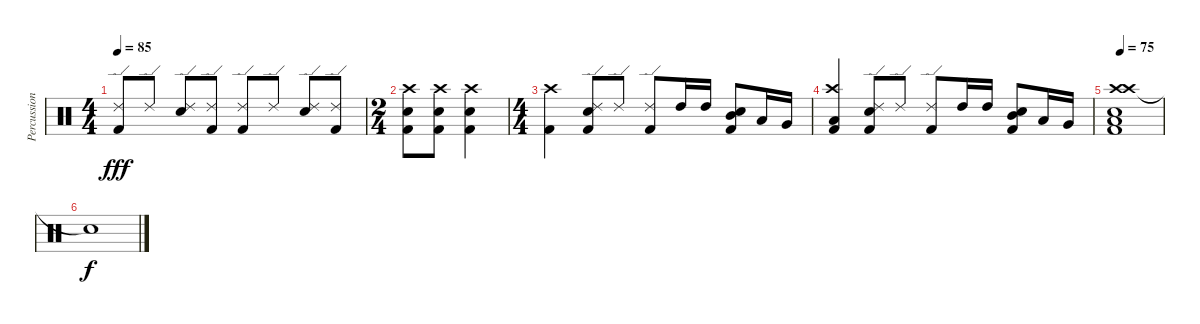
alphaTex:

\track ("Percussion" "Percussion") {instrument percussion}
\staff {score}
\articulation defaults
\ts (4 4)
\tempo 85
\clef neutral
\ks c
("Kick (hit) 2" "Ride (edge) 2").8{dy fff} "Ride (edge) 2".8 ("Ride (edge) 2" "Snare (hit) 2").8 ("Kick (hit) 2" "Ride (edge) 2").8 ("Kick (hit) 2" "Ride (edge) 2").8 "Ride (edge) 2".8 ("Ride (edge) 2" "Snare (hit) 2").8 ("Kick (hit) 2" "Ride (edge) 2").8 |
\ts (2 4)
("Crash high (hit)" "Snare (hit) 2" "Kick (hit) 2").8 ("Crash high (hit)" "Snare (hit) 2" "Kick (hit) 2").8 ("Crash high (hit)" "Snare (hit) 2" "Kick (hit) 2").4 |
\ts (4 4)
("Crash high (hit)" "Kick (hit) 2").4 ("Ride (edge) 2" "Snare (hit) 2" "Kick (hit) 2").8 "Ride (edge) 2".8 ("Ride (edge) 2" "Kick (hit) 2").8 "High Tom (hit)".16 "High Tom (hit)".16 ("Snare (hit) 2" "Mid Tom (hit)" "Kick (hit) 2").8 "Low Tom (hit)".16 "Very Low Tom (hit)".16 |
("Crash high (hit)" "Low Floor Tom (hit)" "Kick (hit) 2").4 ("Ride (edge) 2" "Snare (hit) 2" "Kick (hit) 2").8 "Ride (edge) 2".8 ("Ride (edge) 2" "Kick (hit) 2").8 "High Tom (hit)".16 "High Tom (hit)".16 ("Snare (hit) 2" "Mid Tom (hit)" "Kick (hit) 2").8 "Low Tom (hit)".16 "Very Low Tom (hit)".16 |
\tempo 75
("Crash high (hit)" "Crash high (hit)" "Snare (hit) 2" "Low Floor Tom (hit)" "Kick (hit) 2").1{volume 0} |
"Snare (hit)"{t}.1{dy f}
